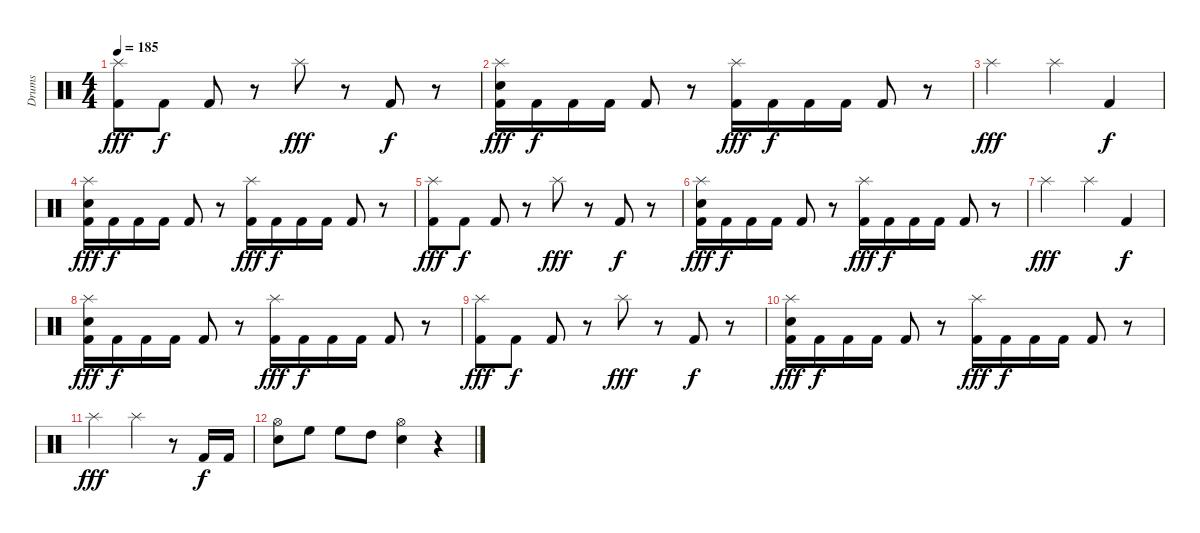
\track ("Drums" "Drums") {instrument percussion}
\staff {score}
\articulation defaults
\ts (4 4)
\tempo 185
\clef neutral
\ks c
("Splash (hit)" "Kick (hit) 2").8{dy fff} "Kick (hit) 2".8{dy f} "Kick (hit) 2".8 r.8 "Splash (hit)".8{dy fff} r.8 "Kick (hit) 2".8{dy f} r.8 |
("Splash (hit)" "Electric Snare (hit)" "Kick (hit) 2").16{dy fff} "Kick (hit) 2".16{dy f} "Kick (hit) 2".16 "Kick (hit) 2".16 "Kick (hit) 2".8 r.8 ("Splash (hit)" "Kick (hit) 2").16{dy fff} "Kick (hit) 2".16{dy f} "Kick (hit) 2".16 "Kick (hit) 2".16 "Kick (hit) 2".8 r.8 |
"Splash (hit)".2{dy fff} "Splash (hit)".4 "Kick (hit) 2".4{dy f} |
("Splash (hit)" "Electric Snare (hit)" "Kick (hit) 2").16{dy fff} "Kick (hit) 2".16{dy f} "Kick (hit) 2".16 "Kick (hit) 2".16 "Kick (hit) 2".8 r.8 ("Splash (hit)" "Kick (hit) 2").16{dy fff} "Kick (hit) 2".16{dy f} "Kick (hit) 2".16 "Kick (hit) 2".16 "Kick (hit) 2".8 r.8 |
("Splash (hit)" "Kick (hit) 2").8{dy fff} "Kick (hit) 2".8{dy f} "Kick (hit) 2".8 r.8 "Splash (hit)".8{dy fff} r.8 "Kick (hit) 2".8{dy f} r.8 |
("Splash (hit)" "Electric Snare (hit)" "Kick (hit) 2").16{dy fff} "Kick (hit) 2".16{dy f} "Kick (hit) 2".16 "Kick (hit) 2".16 "Kick (hit) 2".8 r.8 ("Splash (hit)" "Kick (hit) 2").16{dy fff} "Kick (hit) 2".16{dy f} "Kick (hit) 2".16 "Kick (hit) 2".16 "Kick (hit) 2".8 r.8 |
"Splash (hit)".2{dy fff} "Splash (hit)".4 "Kick (hit) 2".4{dy f} |
("Splash (hit)" "Electric Snare (hit)" "Kick (hit) 2").16{dy fff} "Kick (hit) 2".16{dy f} "Kick (hit) 2".16 "Kick (hit) 2".16 "Kick (hit) 2".8 r.8 ("Splash (hit)" "Kick (hit) 2").16{dy fff} "Kick (hit) 2".16{dy f} "Kick (hit) 2".16 "Kick (hit) 2".16 "Kick (hit) 2".8 r.8 |
("Splash (hit)" "Kick (hit) 2").8{dy fff} "Kick (hit) 2".8{dy f} "Kick (hit) 2".8 r.8 "Splash (hit)".8{dy fff} r.8 "Kick (hit) 2".8{dy f} r.8 |
("Splash (hit)" "Electric Snare (hit)" "Kick (hit) 2").16{dy fff} "Kick (hit) 2".16{dy f} "Kick (hit) 2".16 "Kick (hit) 2".16 "Kick (hit) 2".8 r.8 ("Splash (hit)" "Kick (hit) 2").16{dy fff} "Kick (hit) 2".16{dy f} "Kick (hit) 2".16 "Kick (hit) 2".16 "Kick (hit) 2".8 r.8 |
"Splash (hit)".2{dy fff} "Splash (hit)".4 r.8 "Kick (hit) 2".16{dy f} "Kick (hit) 2".16 |
("Hi-Hat (open)" "Electric Snare (hit)").8 "High Floor Tom (hit)".8 "High Floor Tom (hit)".8 "High Tom (hit)".8 ("Hi-Hat (open)" "Electric Snare (hit)").4 r.4
